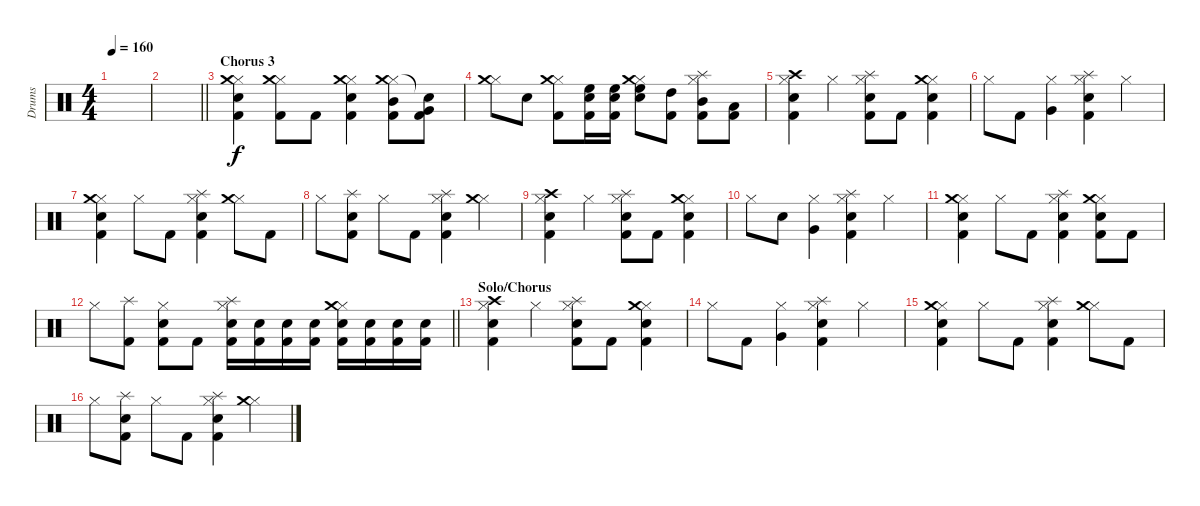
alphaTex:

\track ("Drums" "Drums") {instrument percussion}
\staff {score}
\articulation defaults
\ts (4 4)
\tempo 160
\clef neutral
\ks c
|
\barLineRight lightlight
|
\section ("" "Chorus 3")
("Hi-Hat (closed)" "Crash medium (hit)" "Snare (hit) 2" "Kick (hit) 2").4 ("Hi-Hat (closed)" "Crash medium (hit)" "Kick (hit) 2").8 "Kick (hit) 2".8 ("Hi-Hat (closed)" "Crash medium (hit)" "Snare (hit) 2" "Kick (hit) 2").4 ("Hi-Hat (closed)" "Crash medium (hit)" "Mid Tom (hit)" "Kick (hit) 2").8 ("Snare (hit)"{t} "Very Low Tom (hit)" "Kick (hit) 2").8 |
("Hi-Hat (closed)" "Crash medium (hit)").8 "Snare (hit) 2".8 ("Hi-Hat (closed)" "Crash medium (hit)" "Kick (hit) 2").8 ("High Floor Tom (hit)" "Snare (hit) 2" "Kick (hit) 2").16 ("High Floor Tom (hit)" "Snare (hit) 2" "Kick (hit) 2").16 ("Hi-Hat (closed)" "Crash medium (hit)" "High Floor Tom (hit)" "Snare (hit) 2").8 ("High Tom (hit)" "Kick (hit) 2").8 ("Hi-Hat (closed)" "Splash (hit)" "Mid Tom (hit)" "Kick (hit) 2").8 ("Low Tom (hit)" "Kick (hit) 2").8 |
("Hi-Hat (closed)" "Crash high (hit)" "Snare (hit) 2" "Kick (hit) 2").4 "Hi-Hat (closed)".4 ("Hi-Hat (closed)" "Splash (hit)" "Snare (hit) 2" "Kick (hit) 2").8 "Kick (hit) 2".8 ("Hi-Hat (closed)" "Crash medium (hit)" "Snare (hit) 2" "Kick (hit) 2").4 |
"Hi-Hat (closed)".8 "Kick (hit) 2".8 ("Hi-Hat (closed)" "Very Low Tom (hit)").4 ("Hi-Hat (closed)" "Splash (hit)" "Snare (hit) 2" "Kick (hit) 2").4 "Hi-Hat (closed)".4 |
("Hi-Hat (closed)" "Crash medium (hit)" "Snare (hit) 2" "Kick (hit) 2").4 "Hi-Hat (closed)".8 "Kick (hit) 2".8 ("Hi-Hat (closed)" "Splash (hit)" "Snare (hit) 2" "Kick (hit) 2").4 ("Hi-Hat (closed)" "Crash medium (hit)").8 "Kick (hit) 2".8 |
"Hi-Hat (closed)".8 ("Splash (hit)" "Snare (hit) 2" "Kick (hit) 2").8 "Hi-Hat (closed)".8 "Kick (hit) 2".8 ("Hi-Hat (closed)" "Splash (hit)" "Snare (hit) 2" "Kick (hit) 2").4 ("Hi-Hat (closed)" "Crash medium (hit)").4 |
("Hi-Hat (closed)" "Crash high (hit)" "Snare (hit) 2" "Kick (hit) 2").4 "Hi-Hat (closed)".4 ("Hi-Hat (closed)" "Splash (hit)" "Snare (hit) 2" "Kick (hit) 2").8 "Kick (hit) 2".8 ("Hi-Hat (closed)" "Crash medium (hit)" "Snare (hit) 2" "Kick (hit) 2").4 |
"Hi-Hat (closed)".8 "Snare (hit) 2".8 ("Hi-Hat (closed)" "Very Low Tom (hit)").4 ("Hi-Hat (closed)" "Splash (hit)" "Snare (hit) 2" "Kick (hit) 2").4 "Hi-Hat (closed)".4 |
("Hi-Hat (closed)" "Crash medium (hit)" "Snare (hit) 2" "Kick (hit) 2").4 "Hi-Hat (closed)".8 "Kick (hit) 2".8 ("Hi-Hat (closed)" "Splash (hit)" "Snare (hit) 2" "Kick (hit) 2").4 ("Hi-Hat (closed)" "Crash medium (hit)" "Snare (hit) 2" "Kick (hit) 2").8 "Kick (hit) 2".8 |
\barLineRight lightlight "Hi-Hat (closed)".8
("Splash (hit)" "Kick (hit) 2").8 ("Hi-Hat (closed)" "Snare (hit) 2" "Kick (hit) 2").8 "Kick (hit) 2".8 ("Hi-Hat (closed)" "Splash (hit)" "Electric Snare (hit)" "Kick (hit) 2").16 ("Electric Snare (hit)" "Kick (hit) 2").16 ("Electric Snare (hit)" "Kick (hit) 2").16 ("Electric Snare (hit)" "Kick (hit) 2").16 ("Hi-Hat (closed)" "Crash medium (hit)" "Electric Snare (hit)" "Kick (hit) 2").16 ("Electric Snare (hit)" "Kick (hit) 2").16 ("Electric Snare (hit)" "Kick (hit) 2").16 ("Electric Snare (hit)" "Kick (hit) 2").16 |
\section ("" "Solo/Chorus")
("Hi-Hat (closed)" "Crash high (hit)" "Snare (hit) 2" "Kick (hit) 2").4 "Hi-Hat (closed)".4 ("Hi-Hat (closed)" "Splash (hit)" "Snare (hit) 2" "Kick (hit) 2").8 "Kick (hit) 2".8 ("Hi-Hat (closed)" "Crash medium (hit)" "Snare (hit) 2" "Kick (hit) 2").4 |
"Hi-Hat (closed)".8 "Kick (hit) 2".8 ("Hi-Hat (closed)" "Very Low Tom (hit)").4 ("Hi-Hat (closed)" "Splash (hit)" "Snare (hit) 2" "Kick (hit) 2").4 "Hi-Hat (closed)".4 |
("Hi-Hat (closed)" "Crash medium (hit)" "Snare (hit) 2" "Kick (hit) 2").4 "Hi-Hat (closed)".8 "Kick (hit) 2".8 ("Hi-Hat (closed)" "Splash (hit)" "Snare (hit) 2" "Kick (hit) 2").4 ("Hi-Hat (closed)" "Crash medium (hit)").8 "Kick (hit) 2".8 |
"Hi-Hat (closed)".8 ("Splash (hit)" "Snare (hit) 2" "Kick (hit) 2").8 "Hi-Hat (closed)".8 "Kick (hit) 2".8 ("Hi-Hat (closed)" "Splash (hit)" "Snare (hit) 2" "Kick (hit) 2").4 ("Hi-Hat (closed)" "Crash medium (hit)").4
